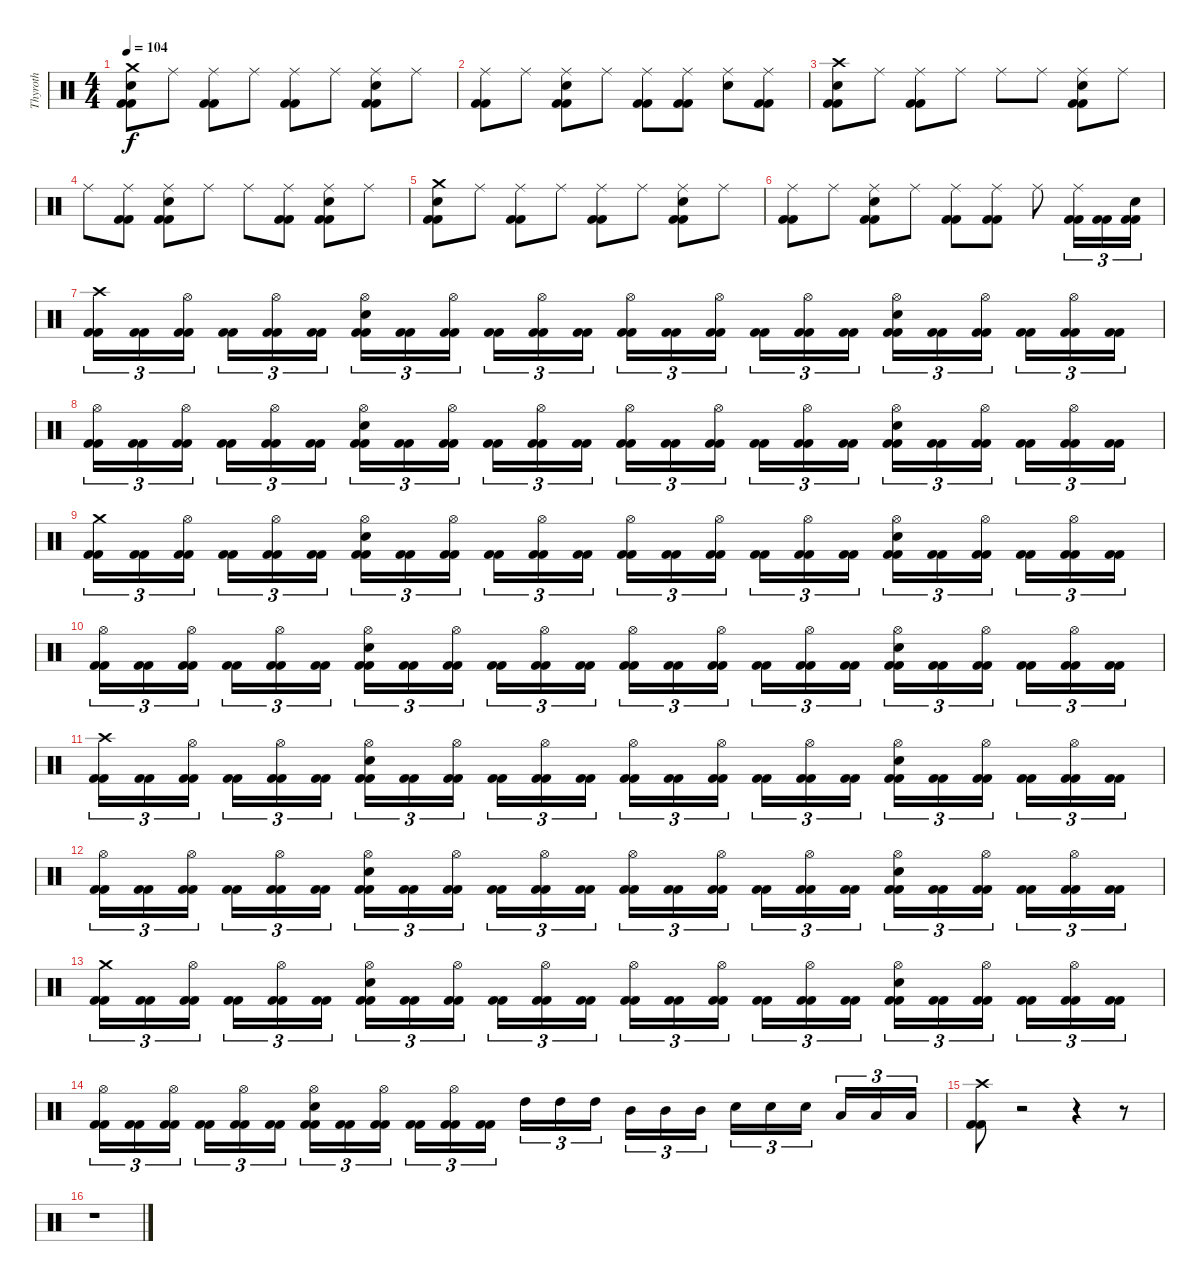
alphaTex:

\track ("Thyroth" "Thyroth") {instrument percussion}
\staff {score}
\articulation defaults
\ts (4 4)
\tempo 104
\clef neutral
\ks c
("Kick (hit) 2" "Kick (hit) 2" "Snare (hit) 2" "Crash medium (hit)").8{dy f} "Ride (middle)".8 ("Kick (hit) 2" "Kick (hit) 2" "Ride (middle)").8 "Ride (middle)".8 ("Kick (hit) 2" "Kick (hit) 2" "Ride (middle)").8 "Ride (middle)".8 ("Kick (hit) 2" "Kick (hit) 2" "Snare (hit) 2" "Ride (middle)").8 "Ride (middle)".8 |
("Kick (hit) 2" "Kick (hit) 2" "Ride (middle)").8 "Ride (middle)".8 ("Kick (hit) 2" "Kick (hit) 2" "Snare (hit) 2" "Ride (middle)").8 "Ride (middle)".8 ("Kick (hit) 2" "Kick (hit) 2" "Ride (middle)").8 ("Kick (hit) 2" "Kick (hit) 2" "Ride (middle)").8 ("Snare (hit) 2" "Ride (middle)").8 ("Kick (hit) 2" "Kick (hit) 2" "Ride (middle)").8 |
("Kick (hit) 2" "Kick (hit) 2" "Snare (hit) 2" "Crash high (hit)").8 "Ride (middle)".8 ("Kick (hit) 2" "Kick (hit) 2" "Ride (middle)").8 "Ride (middle)".8 "Ride (middle)".8 "Ride (middle)".8 ("Kick (hit) 2" "Kick (hit) 2" "Snare (hit) 2" "Ride (middle)").8 "Ride (middle)".8 |
"Ride (middle)".8 ("Kick (hit) 2" "Kick (hit) 2" "Ride (middle)").8 ("Kick (hit) 2" "Kick (hit) 2" "Snare (hit) 2" "Ride (middle)").8 "Ride (middle)".8 "Ride (middle)".8 ("Kick (hit) 2" "Kick (hit) 2" "Ride (middle)").8 ("Kick (hit) 2" "Kick (hit) 2" "Snare (hit) 2" "Ride (middle)").8 "Ride (middle)".8 |
("Kick (hit) 2" "Kick (hit) 2" "Snare (hit) 2" "Crash medium (hit)").8 "Ride (middle)".8 ("Kick (hit) 2" "Kick (hit) 2" "Ride (middle)").8 "Ride (middle)".8 ("Kick (hit) 2" "Kick (hit) 2" "Ride (middle)").8 "Ride (middle)".8 ("Kick (hit) 2" "Kick (hit) 2" "Snare (hit) 2" "Ride (middle)").8 "Ride (middle)".8 |
("Kick (hit) 2" "Kick (hit) 2" "Ride (middle)").8 "Ride (middle)".8 ("Kick (hit) 2" "Kick (hit) 2" "Snare (hit) 2" "Ride (middle)").8 "Ride (middle)".8 ("Kick (hit) 2" "Kick (hit) 2" "Ride (middle)").8 ("Kick (hit) 2" "Kick (hit) 2" "Ride (middle)").8 "Ride (middle)".8 ("Kick (hit) 2" "Kick (hit) 2" "Ride (middle)").16{tu (3 2)} ("Kick (hit) 2" "Kick (hit) 2").16{tu (3 2)} ("Kick (hit) 2" "Kick (hit) 2" "Snare (hit) 2").16{tu (3 2)} |
("Kick (hit) 2" "Kick (hit) 2" "Crash high (hit)").16{tu (3 2)} ("Kick (hit) 2" "Kick (hit) 2").16{tu (3 2)} ("Kick (hit) 2" "Kick (hit) 2" "Hi-Hat (open)").16{tu (3 2)} ("Kick (hit) 2" "Kick (hit) 2").16{tu (3 2)} ("Kick (hit) 2" "Kick (hit) 2" "Hi-Hat (open)").16{tu (3 2)} ("Kick (hit) 2" "Kick (hit) 2").16{tu (3 2)} ("Kick (hit) 2" "Kick (hit) 2" "Snare (hit) 2" "Hi-Hat (open)").16{tu (3 2)} ("Kick (hit) 2" "Kick (hit) 2").16{tu (3 2)} ("Kick (hit) 2" "Kick (hit) 2" "Hi-Hat (open)").16{tu (3 2)} ("Kick (hit) 2" "Kick (hit) 2").16{tu (3 2)} ("Kick (hit) 2" "Kick (hit) 2" "Hi-Hat (open)").16{tu (3 2)} ("Kick (hit) 2" "Kick (hit) 2").16{tu (3 2)} ("Kick (hit) 2" "Kick (hit) 2" "Hi-Hat (open)").16{tu (3 2)} ("Kick (hit) 2" "Kick (hit) 2").16{tu (3 2)} ("Kick (hit) 2" "Kick (hit) 2" "Hi-Hat (open)").16{tu (3 2)} ("Kick (hit) 2" "Kick (hit) 2").16{tu (3 2)} ("Kick (hit) 2" "Kick (hit) 2" "Hi-Hat (open)").16{tu (3 2)} ("Kick (hit) 2" "Kick (hit) 2").16{tu (3 2)} ("Kick (hit) 2" "Kick (hit) 2" "Snare (hit) 2" "Hi-Hat (open)").16{tu (3 2)} ("Kick (hit) 2" "Kick (hit) 2").16{tu (3 2)} ("Kick (hit) 2" "Kick (hit) 2" "Hi-Hat (open)").16{tu (3 2)} ("Kick (hit) 2" "Kick (hit) 2").16{tu (3 2)} ("Kick (hit) 2" "Kick (hit) 2" "Hi-Hat (open)").16{tu (3 2)} ("Kick (hit) 2" "Kick (hit) 2").16{tu (3 2)} |
("Kick (hit) 2" "Kick (hit) 2" "Hi-Hat (open)").16{tu (3 2)} ("Kick (hit) 2" "Kick (hit) 2").16{tu (3 2)} ("Kick (hit) 2" "Kick (hit) 2" "Hi-Hat (open)").16{tu (3 2)} ("Kick (hit) 2" "Kick (hit) 2").16{tu (3 2)} ("Kick (hit) 2" "Kick (hit) 2" "Hi-Hat (open)").16{tu (3 2)} ("Kick (hit) 2" "Kick (hit) 2").16{tu (3 2)} ("Kick (hit) 2" "Kick (hit) 2" "Snare (hit) 2" "Hi-Hat (open)").16{tu (3 2)} ("Kick (hit) 2" "Kick (hit) 2").16{tu (3 2)} ("Kick (hit) 2" "Kick (hit) 2" "Hi-Hat (open)").16{tu (3 2)} ("Kick (hit) 2" "Kick (hit) 2").16{tu (3 2)} ("Kick (hit) 2" "Kick (hit) 2" "Hi-Hat (open)").16{tu (3 2)} ("Kick (hit) 2" "Kick (hit) 2").16{tu (3 2)} ("Kick (hit) 2" "Kick (hit) 2" "Hi-Hat (open)").16{tu (3 2)} ("Kick (hit) 2" "Kick (hit) 2").16{tu (3 2)} ("Kick (hit) 2" "Kick (hit) 2" "Hi-Hat (open)").16{tu (3 2)} ("Kick (hit) 2" "Kick (hit) 2").16{tu (3 2)} ("Kick (hit) 2" "Kick (hit) 2" "Hi-Hat (open)").16{tu (3 2)} ("Kick (hit) 2" "Kick (hit) 2").16{tu (3 2)} ("Kick (hit) 2" "Kick (hit) 2" "Snare (hit) 2" "Hi-Hat (open)").16{tu (3 2)} ("Kick (hit) 2" "Kick (hit) 2").16{tu (3 2)} ("Kick (hit) 2" "Kick (hit) 2" "Hi-Hat (open)").16{tu (3 2)} ("Kick (hit) 2" "Kick (hit) 2").16{tu (3 2)} ("Kick (hit) 2" "Kick (hit) 2" "Hi-Hat (open)").16{tu (3 2)} ("Kick (hit) 2" "Kick (hit) 2").16{tu (3 2)} |
("Kick (hit) 2" "Kick (hit) 2" "Crash medium (hit)").16{tu (3 2)} ("Kick (hit) 2" "Kick (hit) 2").16{tu (3 2)} ("Kick (hit) 2" "Kick (hit) 2" "Hi-Hat (open)").16{tu (3 2)} ("Kick (hit) 2" "Kick (hit) 2").16{tu (3 2)} ("Kick (hit) 2" "Kick (hit) 2" "Hi-Hat (open)").16{tu (3 2)} ("Kick (hit) 2" "Kick (hit) 2").16{tu (3 2)} ("Kick (hit) 2" "Kick (hit) 2" "Snare (hit) 2" "Hi-Hat (open)").16{tu (3 2)} ("Kick (hit) 2" "Kick (hit) 2").16{tu (3 2)} ("Kick (hit) 2" "Kick (hit) 2" "Hi-Hat (open)").16{tu (3 2)} ("Kick (hit) 2" "Kick (hit) 2").16{tu (3 2)} ("Kick (hit) 2" "Kick (hit) 2" "Hi-Hat (open)").16{tu (3 2)} ("Kick (hit) 2" "Kick (hit) 2").16{tu (3 2)} ("Kick (hit) 2" "Kick (hit) 2" "Hi-Hat (open)").16{tu (3 2)} ("Kick (hit) 2" "Kick (hit) 2").16{tu (3 2)} ("Kick (hit) 2" "Kick (hit) 2" "Hi-Hat (open)").16{tu (3 2)} ("Kick (hit) 2" "Kick (hit) 2").16{tu (3 2)} ("Kick (hit) 2" "Kick (hit) 2" "Hi-Hat (open)").16{tu (3 2)} ("Kick (hit) 2" "Kick (hit) 2").16{tu (3 2)} ("Kick (hit) 2" "Kick (hit) 2" "Snare (hit) 2" "Hi-Hat (open)").16{tu (3 2)} ("Kick (hit) 2" "Kick (hit) 2").16{tu (3 2)} ("Kick (hit) 2" "Kick (hit) 2" "Hi-Hat (open)").16{tu (3 2)} ("Kick (hit) 2" "Kick (hit) 2").16{tu (3 2)} ("Kick (hit) 2" "Kick (hit) 2" "Hi-Hat (open)").16{tu (3 2)} ("Kick (hit) 2" "Kick (hit) 2").16{tu (3 2)} |
("Kick (hit) 2" "Kick (hit) 2" "Hi-Hat (open)").16{tu (3 2)} ("Kick (hit) 2" "Kick (hit) 2").16{tu (3 2)} ("Kick (hit) 2" "Kick (hit) 2" "Hi-Hat (open)").16{tu (3 2)} ("Kick (hit) 2" "Kick (hit) 2").16{tu (3 2)} ("Kick (hit) 2" "Kick (hit) 2" "Hi-Hat (open)").16{tu (3 2)} ("Kick (hit) 2" "Kick (hit) 2").16{tu (3 2)} ("Kick (hit) 2" "Kick (hit) 2" "Snare (hit) 2" "Hi-Hat (open)").16{tu (3 2)} ("Kick (hit) 2" "Kick (hit) 2").16{tu (3 2)} ("Kick (hit) 2" "Kick (hit) 2" "Hi-Hat (open)").16{tu (3 2)} ("Kick (hit) 2" "Kick (hit) 2").16{tu (3 2)} ("Kick (hit) 2" "Kick (hit) 2" "Hi-Hat (open)").16{tu (3 2)} ("Kick (hit) 2" "Kick (hit) 2").16{tu (3 2)} ("Kick (hit) 2" "Kick (hit) 2" "Hi-Hat (open)").16{tu (3 2)} ("Kick (hit) 2" "Kick (hit) 2").16{tu (3 2)} ("Kick (hit) 2" "Kick (hit) 2" "Hi-Hat (open)").16{tu (3 2)} ("Kick (hit) 2" "Kick (hit) 2").16{tu (3 2)} ("Kick (hit) 2" "Kick (hit) 2" "Hi-Hat (open)").16{tu (3 2)} ("Kick (hit) 2" "Kick (hit) 2").16{tu (3 2)} ("Kick (hit) 2" "Kick (hit) 2" "Snare (hit) 2" "Hi-Hat (open)").16{tu (3 2)} ("Kick (hit) 2" "Kick (hit) 2").16{tu (3 2)} ("Kick (hit) 2" "Kick (hit) 2" "Hi-Hat (open)").16{tu (3 2)} ("Kick (hit) 2" "Kick (hit) 2").16{tu (3 2)} ("Kick (hit) 2" "Kick (hit) 2" "Hi-Hat (open)").16{tu (3 2)} ("Kick (hit) 2" "Kick (hit) 2").16{tu (3 2)} |
("Kick (hit) 2" "Kick (hit) 2" "Crash high (hit)").16{tu (3 2)} ("Kick (hit) 2" "Kick (hit) 2").16{tu (3 2)} ("Kick (hit) 2" "Kick (hit) 2" "Hi-Hat (open)").16{tu (3 2)} ("Kick (hit) 2" "Kick (hit) 2").16{tu (3 2)} ("Kick (hit) 2" "Kick (hit) 2" "Hi-Hat (open)").16{tu (3 2)} ("Kick (hit) 2" "Kick (hit) 2").16{tu (3 2)} ("Kick (hit) 2" "Kick (hit) 2" "Snare (hit) 2" "Hi-Hat (open)").16{tu (3 2)} ("Kick (hit) 2" "Kick (hit) 2").16{tu (3 2)} ("Kick (hit) 2" "Kick (hit) 2" "Hi-Hat (open)").16{tu (3 2)} ("Kick (hit) 2" "Kick (hit) 2").16{tu (3 2)} ("Kick (hit) 2" "Kick (hit) 2" "Hi-Hat (open)").16{tu (3 2)} ("Kick (hit) 2" "Kick (hit) 2").16{tu (3 2)} ("Kick (hit) 2" "Kick (hit) 2" "Hi-Hat (open)").16{tu (3 2)} ("Kick (hit) 2" "Kick (hit) 2").16{tu (3 2)} ("Kick (hit) 2" "Kick (hit) 2" "Hi-Hat (open)").16{tu (3 2)} ("Kick (hit) 2" "Kick (hit) 2").16{tu (3 2)} ("Kick (hit) 2" "Kick (hit) 2" "Hi-Hat (open)").16{tu (3 2)} ("Kick (hit) 2" "Kick (hit) 2").16{tu (3 2)} ("Kick (hit) 2" "Kick (hit) 2" "Snare (hit) 2" "Hi-Hat (open)").16{tu (3 2)} ("Kick (hit) 2" "Kick (hit) 2").16{tu (3 2)} ("Kick (hit) 2" "Kick (hit) 2" "Hi-Hat (open)").16{tu (3 2)} ("Kick (hit) 2" "Kick (hit) 2").16{tu (3 2)} ("Kick (hit) 2" "Kick (hit) 2" "Hi-Hat (open)").16{tu (3 2)} ("Kick (hit) 2" "Kick (hit) 2").16{tu (3 2)} |
("Kick (hit) 2" "Kick (hit) 2" "Hi-Hat (open)").16{tu (3 2)} ("Kick (hit) 2" "Kick (hit) 2").16{tu (3 2)} ("Kick (hit) 2" "Kick (hit) 2" "Hi-Hat (open)").16{tu (3 2)} ("Kick (hit) 2" "Kick (hit) 2").16{tu (3 2)} ("Kick (hit) 2" "Kick (hit) 2" "Hi-Hat (open)").16{tu (3 2)} ("Kick (hit) 2" "Kick (hit) 2").16{tu (3 2)} ("Kick (hit) 2" "Kick (hit) 2" "Snare (hit) 2" "Hi-Hat (open)").16{tu (3 2)} ("Kick (hit) 2" "Kick (hit) 2").16{tu (3 2)} ("Kick (hit) 2" "Kick (hit) 2" "Hi-Hat (open)").16{tu (3 2)} ("Kick (hit) 2" "Kick (hit) 2").16{tu (3 2)} ("Kick (hit) 2" "Kick (hit) 2" "Hi-Hat (open)").16{tu (3 2)} ("Kick (hit) 2" "Kick (hit) 2").16{tu (3 2)} ("Kick (hit) 2" "Kick (hit) 2" "Hi-Hat (open)").16{tu (3 2)} ("Kick (hit) 2" "Kick (hit) 2").16{tu (3 2)} ("Kick (hit) 2" "Kick (hit) 2" "Hi-Hat (open)").16{tu (3 2)} ("Kick (hit) 2" "Kick (hit) 2").16{tu (3 2)} ("Kick (hit) 2" "Kick (hit) 2" "Hi-Hat (open)").16{tu (3 2)} ("Kick (hit) 2" "Kick (hit) 2").16{tu (3 2)} ("Kick (hit) 2" "Kick (hit) 2" "Snare (hit) 2" "Hi-Hat (open)").16{tu (3 2)} ("Kick (hit) 2" "Kick (hit) 2").16{tu (3 2)} ("Kick (hit) 2" "Kick (hit) 2" "Hi-Hat (open)").16{tu (3 2)} ("Kick (hit) 2" "Kick (hit) 2").16{tu (3 2)} ("Kick (hit) 2" "Kick (hit) 2" "Hi-Hat (open)").16{tu (3 2)} ("Kick (hit) 2" "Kick (hit) 2").16{tu (3 2)} |
("Kick (hit) 2" "Kick (hit) 2" "Crash medium (hit)").16{tu (3 2)} ("Kick (hit) 2" "Kick (hit) 2").16{tu (3 2)} ("Kick (hit) 2" "Kick (hit) 2" "Hi-Hat (open)").16{tu (3 2)} ("Kick (hit) 2" "Kick (hit) 2").16{tu (3 2)} ("Kick (hit) 2" "Kick (hit) 2" "Hi-Hat (open)").16{tu (3 2)} ("Kick (hit) 2" "Kick (hit) 2").16{tu (3 2)} ("Kick (hit) 2" "Kick (hit) 2" "Snare (hit) 2" "Hi-Hat (open)").16{tu (3 2)} ("Kick (hit) 2" "Kick (hit) 2").16{tu (3 2)} ("Kick (hit) 2" "Kick (hit) 2" "Hi-Hat (open)").16{tu (3 2)} ("Kick (hit) 2" "Kick (hit) 2").16{tu (3 2)} ("Kick (hit) 2" "Kick (hit) 2" "Hi-Hat (open)").16{tu (3 2)} ("Kick (hit) 2" "Kick (hit) 2").16{tu (3 2)} ("Kick (hit) 2" "Kick (hit) 2" "Hi-Hat (open)").16{tu (3 2)} ("Kick (hit) 2" "Kick (hit) 2").16{tu (3 2)} ("Kick (hit) 2" "Kick (hit) 2" "Hi-Hat (open)").16{tu (3 2)} ("Kick (hit) 2" "Kick (hit) 2").16{tu (3 2)} ("Kick (hit) 2" "Kick (hit) 2" "Hi-Hat (open)").16{tu (3 2)} ("Kick (hit) 2" "Kick (hit) 2").16{tu (3 2)} ("Kick (hit) 2" "Kick (hit) 2" "Snare (hit) 2" "Hi-Hat (open)").16{tu (3 2)} ("Kick (hit) 2" "Kick (hit) 2").16{tu (3 2)} ("Kick (hit) 2" "Kick (hit) 2" "Hi-Hat (open)").16{tu (3 2)} ("Kick (hit) 2" "Kick (hit) 2").16{tu (3 2)} ("Kick (hit) 2" "Kick (hit) 2" "Hi-Hat (open)").16{tu (3 2)} ("Kick (hit) 2" "Kick (hit) 2").16{tu (3 2)} |
("Kick (hit) 2" "Kick (hit) 2" "Hi-Hat (open)").16{tu (3 2)} ("Kick (hit) 2" "Kick (hit) 2").16{tu (3 2)} ("Kick (hit) 2" "Kick (hit) 2" "Hi-Hat (open)").16{tu (3 2)} ("Kick (hit) 2" "Kick (hit) 2").16{tu (3 2)} ("Kick (hit) 2" "Kick (hit) 2" "Hi-Hat (open)").16{tu (3 2)} ("Kick (hit) 2" "Kick (hit) 2").16{tu (3 2)} ("Kick (hit) 2" "Kick (hit) 2" "Snare (hit) 2" "Hi-Hat (open)").16{tu (3 2)} ("Kick (hit) 2" "Kick (hit) 2").16{tu (3 2)} ("Kick (hit) 2" "Kick (hit) 2" "Hi-Hat (open)").16{tu (3 2)} ("Kick (hit) 2" "Kick (hit) 2").16{tu (3 2)} ("Kick (hit) 2" "Kick (hit) 2" "Hi-Hat (open)").16{tu (3 2)} ("Kick (hit) 2" "Kick (hit) 2").16{tu (3 2)} "High Tom (hit)".16{tu (3 2)} "High Tom (hit)".16{tu (3 2)} "High Tom (hit)".16{tu (3 2)} "Mid Tom (hit)".16{tu (3 2)} "Mid Tom (hit)".16{tu (3 2)} "Mid Tom (hit)".16{tu (3 2)} "Snare (hit) 2".16{tu (3 2)} "Snare (hit) 2".16{tu (3 2)} "Snare (hit) 2".16{tu (3 2)} "Low Tom (hit)".16{tu (3 2)} "Low Tom (hit)".16{tu (3 2)} "Low Tom (hit)".16{tu (3 2)} |
("Kick (hit) 2" "Kick (hit) 2" "Crash high (hit)").8 r.2 r.4 r.8 |
r.1
